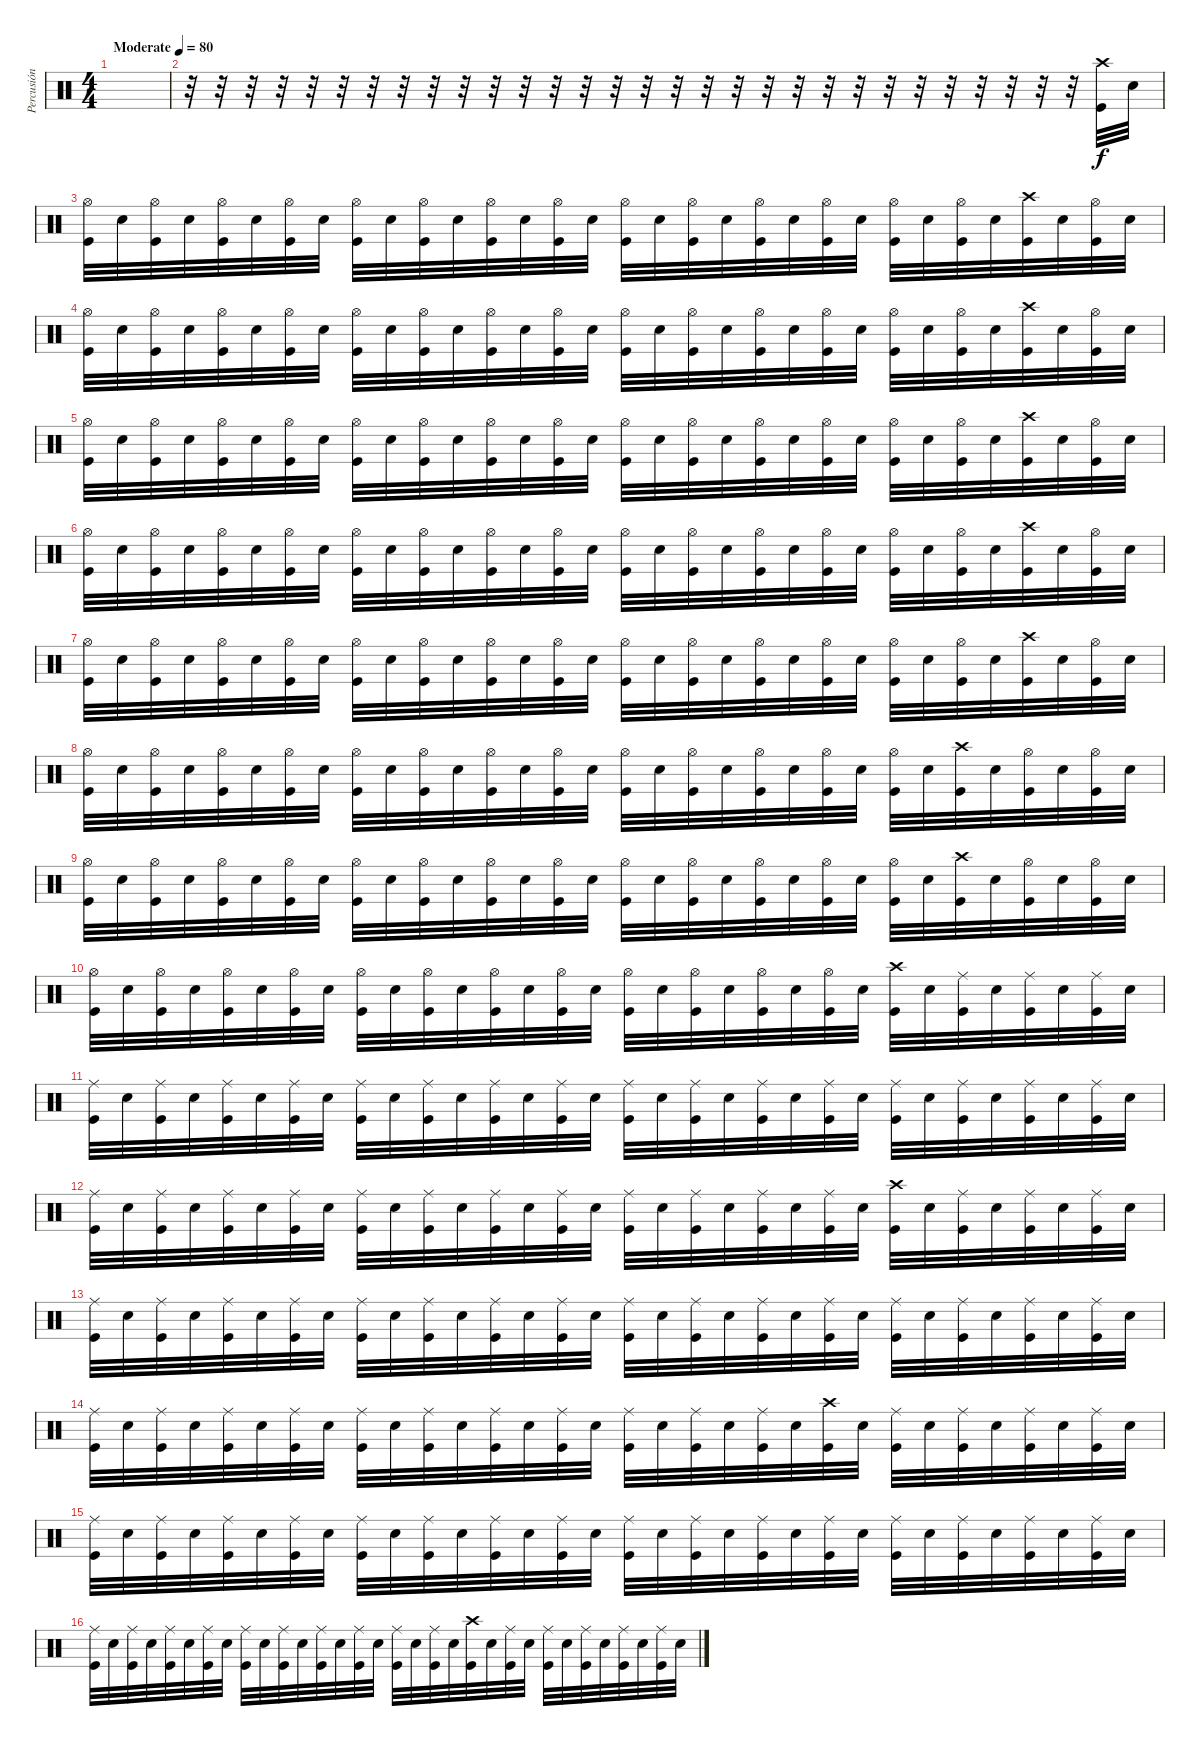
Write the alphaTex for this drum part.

\track ("Percusión" "Percusión") {instrument percussion}
\staff {score}
\articulation defaults
\ts (4 4)
\tempo (80 "Moderate")
\clef neutral
\ks c
|
r.32 r.32 r.32 r.32 r.32 r.32 r.32 r.32 r.32 r.32 r.32 r.32 r.32 r.32 r.32 r.32 r.32 r.32 r.32 r.32 r.32 r.32 r.32 r.32 r.32 r.32 r.32 r.32 r.32 r.32 ("Crash high (hit)" "Kick (hit)").32 "Electric Snare (hit)".32 |
("Hi-Hat (open)" "Kick (hit)").32 "Electric Snare (hit)".32 ("Hi-Hat (open)" "Kick (hit)").32 "Electric Snare (hit)".32 ("Hi-Hat (open)" "Kick (hit)").32 "Electric Snare (hit)".32 ("Hi-Hat (open)" "Kick (hit)").32 "Electric Snare (hit)".32 ("Hi-Hat (open)" "Kick (hit)").32 "Electric Snare (hit)".32 ("Hi-Hat (open)" "Kick (hit)").32 "Electric Snare (hit)".32 ("Hi-Hat (open)" "Kick (hit)").32 "Electric Snare (hit)".32 ("Hi-Hat (open)" "Kick (hit)").32 "Electric Snare (hit)".32 ("Hi-Hat (open)" "Kick (hit)").32 "Electric Snare (hit)".32 ("Hi-Hat (open)" "Kick (hit)").32 "Electric Snare (hit)".32 ("Hi-Hat (open)" "Kick (hit)").32 "Electric Snare (hit)".32 ("Hi-Hat (open)" "Kick (hit)").32 "Electric Snare (hit)".32 ("Hi-Hat (open)" "Kick (hit)").32 "Electric Snare (hit)".32 ("Hi-Hat (open)" "Kick (hit)").32 "Electric Snare (hit)".32 ("Crash high (hit)" "Kick (hit)").32 "Electric Snare (hit)".32 ("Hi-Hat (open)" "Kick (hit)").32 "Electric Snare (hit)".32 |
("Hi-Hat (open)" "Kick (hit)").32 "Electric Snare (hit)".32 ("Hi-Hat (open)" "Kick (hit)").32 "Electric Snare (hit)".32 ("Hi-Hat (open)" "Kick (hit)").32 "Electric Snare (hit)".32 ("Hi-Hat (open)" "Kick (hit)").32 "Electric Snare (hit)".32 ("Hi-Hat (open)" "Kick (hit)").32 "Electric Snare (hit)".32 ("Hi-Hat (open)" "Kick (hit)").32 "Electric Snare (hit)".32 ("Hi-Hat (open)" "Kick (hit)").32 "Electric Snare (hit)".32 ("Hi-Hat (open)" "Kick (hit)").32 "Electric Snare (hit)".32 ("Hi-Hat (open)" "Kick (hit)").32 "Electric Snare (hit)".32 ("Hi-Hat (open)" "Kick (hit)").32 "Electric Snare (hit)".32 ("Hi-Hat (open)" "Kick (hit)").32 "Electric Snare (hit)".32 ("Hi-Hat (open)" "Kick (hit)").32 "Electric Snare (hit)".32 ("Hi-Hat (open)" "Kick (hit)").32 "Electric Snare (hit)".32 ("Hi-Hat (open)" "Kick (hit)").32 "Electric Snare (hit)".32 ("Crash high (hit)" "Kick (hit)").32 "Electric Snare (hit)".32 ("Hi-Hat (open)" "Kick (hit)").32 "Electric Snare (hit)".32 |
("Hi-Hat (open)" "Kick (hit)").32 "Electric Snare (hit)".32 ("Hi-Hat (open)" "Kick (hit)").32 "Electric Snare (hit)".32 ("Hi-Hat (open)" "Kick (hit)").32 "Electric Snare (hit)".32 ("Hi-Hat (open)" "Kick (hit)").32 "Electric Snare (hit)".32 ("Hi-Hat (open)" "Kick (hit)").32 "Electric Snare (hit)".32 ("Hi-Hat (open)" "Kick (hit)").32 "Electric Snare (hit)".32 ("Hi-Hat (open)" "Kick (hit)").32 "Electric Snare (hit)".32 ("Hi-Hat (open)" "Kick (hit)").32 "Electric Snare (hit)".32 ("Hi-Hat (open)" "Kick (hit)").32 "Electric Snare (hit)".32 ("Hi-Hat (open)" "Kick (hit)").32 "Electric Snare (hit)".32 ("Hi-Hat (open)" "Kick (hit)").32 "Electric Snare (hit)".32 ("Hi-Hat (open)" "Kick (hit)").32 "Electric Snare (hit)".32 ("Hi-Hat (open)" "Kick (hit)").32 "Electric Snare (hit)".32 ("Hi-Hat (open)" "Kick (hit)").32 "Electric Snare (hit)".32 ("Crash high (hit)" "Kick (hit)").32 "Electric Snare (hit)".32 ("Hi-Hat (open)" "Kick (hit)").32 "Electric Snare (hit)".32 |
("Hi-Hat (open)" "Kick (hit)").32 "Electric Snare (hit)".32 ("Hi-Hat (open)" "Kick (hit)").32 "Electric Snare (hit)".32 ("Hi-Hat (open)" "Kick (hit)").32 "Electric Snare (hit)".32 ("Hi-Hat (open)" "Kick (hit)").32 "Electric Snare (hit)".32 ("Hi-Hat (open)" "Kick (hit)").32 "Electric Snare (hit)".32 ("Hi-Hat (open)" "Kick (hit)").32 "Electric Snare (hit)".32 ("Hi-Hat (open)" "Kick (hit)").32 "Electric Snare (hit)".32 ("Hi-Hat (open)" "Kick (hit)").32 "Electric Snare (hit)".32 ("Hi-Hat (open)" "Kick (hit)").32 "Electric Snare (hit)".32 ("Hi-Hat (open)" "Kick (hit)").32 "Electric Snare (hit)".32 ("Hi-Hat (open)" "Kick (hit)").32 "Electric Snare (hit)".32 ("Hi-Hat (open)" "Kick (hit)").32 "Electric Snare (hit)".32 ("Hi-Hat (open)" "Kick (hit)").32 "Electric Snare (hit)".32 ("Hi-Hat (open)" "Kick (hit)").32 "Electric Snare (hit)".32 ("Crash high (hit)" "Kick (hit)").32 "Electric Snare (hit)".32 ("Hi-Hat (open)" "Kick (hit)").32 "Electric Snare (hit)".32 |
("Hi-Hat (open)" "Kick (hit)").32 "Electric Snare (hit)".32 ("Hi-Hat (open)" "Kick (hit)").32 "Electric Snare (hit)".32 ("Hi-Hat (open)" "Kick (hit)").32 "Electric Snare (hit)".32 ("Hi-Hat (open)" "Kick (hit)").32 "Electric Snare (hit)".32 ("Hi-Hat (open)" "Kick (hit)").32 "Electric Snare (hit)".32 ("Hi-Hat (open)" "Kick (hit)").32 "Electric Snare (hit)".32 ("Hi-Hat (open)" "Kick (hit)").32 "Electric Snare (hit)".32 ("Hi-Hat (open)" "Kick (hit)").32 "Electric Snare (hit)".32 ("Hi-Hat (open)" "Kick (hit)").32 "Electric Snare (hit)".32 ("Hi-Hat (open)" "Kick (hit)").32 "Electric Snare (hit)".32 ("Hi-Hat (open)" "Kick (hit)").32 "Electric Snare (hit)".32 ("Hi-Hat (open)" "Kick (hit)").32 "Electric Snare (hit)".32 ("Hi-Hat (open)" "Kick (hit)").32 "Electric Snare (hit)".32 ("Hi-Hat (open)" "Kick (hit)").32 "Electric Snare (hit)".32 ("Crash high (hit)" "Kick (hit)").32 "Electric Snare (hit)".32 ("Hi-Hat (open)" "Kick (hit)").32 "Electric Snare (hit)".32 |
("Hi-Hat (open)" "Kick (hit)").32 "Electric Snare (hit)".32 ("Hi-Hat (open)" "Kick (hit)").32 "Electric Snare (hit)".32 ("Hi-Hat (open)" "Kick (hit)").32 "Electric Snare (hit)".32 ("Hi-Hat (open)" "Kick (hit)").32 "Electric Snare (hit)".32 ("Hi-Hat (open)" "Kick (hit)").32 "Electric Snare (hit)".32 ("Hi-Hat (open)" "Kick (hit)").32 "Electric Snare (hit)".32 ("Hi-Hat (open)" "Kick (hit)").32 "Electric Snare (hit)".32 ("Hi-Hat (open)" "Kick (hit)").32 "Electric Snare (hit)".32 ("Hi-Hat (open)" "Kick (hit)").32 "Electric Snare (hit)".32 ("Hi-Hat (open)" "Kick (hit)").32 "Electric Snare (hit)".32 ("Hi-Hat (open)" "Kick (hit)").32 "Electric Snare (hit)".32 ("Hi-Hat (open)" "Kick (hit)").32 "Electric Snare (hit)".32 ("Hi-Hat (open)" "Kick (hit)").32 "Electric Snare (hit)".32 ("Crash high (hit)" "Kick (hit)").32 "Electric Snare (hit)".32 ("Hi-Hat (open)" "Kick (hit)").32 "Electric Snare (hit)".32 ("Hi-Hat (open)" "Kick (hit)").32 "Electric Snare (hit)".32 |
("Hi-Hat (open)" "Kick (hit)").32 "Electric Snare (hit)".32 ("Hi-Hat (open)" "Kick (hit)").32 "Electric Snare (hit)".32 ("Hi-Hat (open)" "Kick (hit)").32 "Electric Snare (hit)".32 ("Hi-Hat (open)" "Kick (hit)").32 "Electric Snare (hit)".32 ("Hi-Hat (open)" "Kick (hit)").32 "Electric Snare (hit)".32 ("Hi-Hat (open)" "Kick (hit)").32 "Electric Snare (hit)".32 ("Hi-Hat (open)" "Kick (hit)").32 "Electric Snare (hit)".32 ("Hi-Hat (open)" "Kick (hit)").32 "Electric Snare (hit)".32 ("Hi-Hat (open)" "Kick (hit)").32 "Electric Snare (hit)".32 ("Hi-Hat (open)" "Kick (hit)").32 "Electric Snare (hit)".32 ("Hi-Hat (open)" "Kick (hit)").32 "Electric Snare (hit)".32 ("Hi-Hat (open)" "Kick (hit)").32 "Electric Snare (hit)".32 ("Hi-Hat (open)" "Kick (hit)").32 "Electric Snare (hit)".32 ("Crash high (hit)" "Kick (hit)").32 "Electric Snare (hit)".32 ("Hi-Hat (open)" "Kick (hit)").32 "Electric Snare (hit)".32 ("Hi-Hat (open)" "Kick (hit)").32 "Electric Snare (hit)".32 |
("Hi-Hat (open)" "Kick (hit)").32 "Electric Snare (hit)".32 ("Hi-Hat (open)" "Kick (hit)").32 "Electric Snare (hit)".32 ("Hi-Hat (open)" "Kick (hit)").32 "Electric Snare (hit)".32 ("Hi-Hat (open)" "Kick (hit)").32 "Electric Snare (hit)".32 ("Hi-Hat (open)" "Kick (hit)").32 "Electric Snare (hit)".32 ("Hi-Hat (open)" "Kick (hit)").32 "Electric Snare (hit)".32 ("Hi-Hat (open)" "Kick (hit)").32 "Electric Snare (hit)".32 ("Hi-Hat (open)" "Kick (hit)").32 "Electric Snare (hit)".32 ("Hi-Hat (open)" "Kick (hit)").32 "Electric Snare (hit)".32 ("Hi-Hat (open)" "Kick (hit)").32 "Electric Snare (hit)".32 ("Hi-Hat (open)" "Kick (hit)").32 "Electric Snare (hit)".32 ("Hi-Hat (open)" "Kick (hit)").32 "Electric Snare (hit)".32 ("Crash high (hit)" "Kick (hit)").32 "Electric Snare (hit)".32 ("Ride (middle)" "Kick (hit)").32 "Electric Snare (hit)".32 ("Ride (middle)" "Kick (hit)").32 "Electric Snare (hit)".32 ("Ride (middle)" "Kick (hit)").32 "Electric Snare (hit)".32 |
("Ride (middle)" "Kick (hit)").32 "Electric Snare (hit)".32 ("Ride (middle)" "Kick (hit)").32 "Electric Snare (hit)".32 ("Ride (middle)" "Kick (hit)").32 "Electric Snare (hit)".32 ("Ride (middle)" "Kick (hit)").32 "Electric Snare (hit)".32 ("Ride (middle)" "Kick (hit)").32 "Electric Snare (hit)".32 ("Ride (middle)" "Kick (hit)").32 "Electric Snare (hit)".32 ("Ride (middle)" "Kick (hit)").32 "Electric Snare (hit)".32 ("Ride (middle)" "Kick (hit)").32 "Electric Snare (hit)".32 ("Ride (middle)" "Kick (hit)").32 "Electric Snare (hit)".32 ("Ride (middle)" "Kick (hit)").32 "Electric Snare (hit)".32 ("Ride (middle)" "Kick (hit)").32 "Electric Snare (hit)".32 ("Ride (middle)" "Kick (hit)").32 "Electric Snare (hit)".32 ("Ride (middle)" "Kick (hit)").32 "Electric Snare (hit)".32 ("Ride (middle)" "Kick (hit)").32 "Electric Snare (hit)".32 ("Ride (middle)" "Kick (hit)").32 "Electric Snare (hit)".32 ("Ride (middle)" "Kick (hit)").32 "Electric Snare (hit)".32 |
("Ride (middle)" "Kick (hit)").32 "Electric Snare (hit)".32 ("Ride (middle)" "Kick (hit)").32 "Electric Snare (hit)".32 ("Ride (middle)" "Kick (hit)").32 "Electric Snare (hit)".32 ("Ride (middle)" "Kick (hit)").32 "Electric Snare (hit)".32 ("Ride (middle)" "Kick (hit)").32 "Electric Snare (hit)".32 ("Ride (middle)" "Kick (hit)").32 "Electric Snare (hit)".32 ("Ride (middle)" "Kick (hit)").32 "Electric Snare (hit)".32 ("Ride (middle)" "Kick (hit)").32 "Electric Snare (hit)".32 ("Ride (middle)" "Kick (hit)").32 "Electric Snare (hit)".32 ("Ride (middle)" "Kick (hit)").32 "Electric Snare (hit)".32 ("Ride (middle)" "Kick (hit)").32 "Electric Snare (hit)".32 ("Ride (middle)" "Kick (hit)").32 "Electric Snare (hit)".32 ("Crash high (hit)" "Kick (hit)").32 "Electric Snare (hit)".32 ("Ride (middle)" "Kick (hit)").32 "Electric Snare (hit)".32 ("Ride (middle)" "Kick (hit)").32 "Electric Snare (hit)".32 ("Ride (middle)" "Kick (hit)").32 "Electric Snare (hit)".32 |
("Ride (middle)" "Kick (hit)").32 "Electric Snare (hit)".32 ("Ride (middle)" "Kick (hit)").32 "Electric Snare (hit)".32 ("Ride (middle)" "Kick (hit)").32 "Electric Snare (hit)".32 ("Ride (middle)" "Kick (hit)").32 "Electric Snare (hit)".32 ("Ride (middle)" "Kick (hit)").32 "Electric Snare (hit)".32 ("Ride (middle)" "Kick (hit)").32 "Electric Snare (hit)".32 ("Ride (middle)" "Kick (hit)").32 "Electric Snare (hit)".32 ("Ride (middle)" "Kick (hit)").32 "Electric Snare (hit)".32 ("Ride (middle)" "Kick (hit)").32 "Electric Snare (hit)".32 ("Ride (middle)" "Kick (hit)").32 "Electric Snare (hit)".32 ("Ride (middle)" "Kick (hit)").32 "Electric Snare (hit)".32 ("Ride (middle)" "Kick (hit)").32 "Electric Snare (hit)".32 ("Ride (middle)" "Kick (hit)").32 "Electric Snare (hit)".32 ("Ride (middle)" "Kick (hit)").32 "Electric Snare (hit)".32 ("Ride (middle)" "Kick (hit)").32 "Electric Snare (hit)".32 ("Ride (middle)" "Kick (hit)").32 "Electric Snare (hit)".32 |
("Ride (middle)" "Kick (hit)").32 "Electric Snare (hit)".32 ("Ride (middle)" "Kick (hit)").32 "Electric Snare (hit)".32 ("Ride (middle)" "Kick (hit)").32 "Electric Snare (hit)".32 ("Ride (middle)" "Kick (hit)").32 "Electric Snare (hit)".32 ("Ride (middle)" "Kick (hit)").32 "Electric Snare (hit)".32 ("Ride (middle)" "Kick (hit)").32 "Electric Snare (hit)".32 ("Ride (middle)" "Kick (hit)").32 "Electric Snare (hit)".32 ("Ride (middle)" "Kick (hit)").32 "Electric Snare (hit)".32 ("Ride (middle)" "Kick (hit)").32 "Electric Snare (hit)".32 ("Ride (middle)" "Kick (hit)").32 "Electric Snare (hit)".32 ("Ride (middle)" "Kick (hit)").32 "Electric Snare (hit)".32 ("Crash high (hit)" "Kick (hit)").32 "Electric Snare (hit)".32 ("Ride (middle)" "Kick (hit)").32 "Electric Snare (hit)".32 ("Ride (middle)" "Kick (hit)").32 "Electric Snare (hit)".32 ("Ride (middle)" "Kick (hit)").32 "Electric Snare (hit)".32 ("Ride (middle)" "Kick (hit)").32 "Electric Snare (hit)".32 |
("Ride (middle)" "Kick (hit)").32 "Electric Snare (hit)".32 ("Ride (middle)" "Kick (hit)").32 "Electric Snare (hit)".32 ("Ride (middle)" "Kick (hit)").32 "Electric Snare (hit)".32 ("Ride (middle)" "Kick (hit)").32 "Electric Snare (hit)".32 ("Ride (middle)" "Kick (hit)").32 "Electric Snare (hit)".32 ("Ride (middle)" "Kick (hit)").32 "Electric Snare (hit)".32 ("Ride (middle)" "Kick (hit)").32 "Electric Snare (hit)".32 ("Ride (middle)" "Kick (hit)").32 "Electric Snare (hit)".32 ("Ride (middle)" "Kick (hit)").32 "Electric Snare (hit)".32 ("Ride (middle)" "Kick (hit)").32 "Electric Snare (hit)".32 ("Ride (middle)" "Kick (hit)").32 "Electric Snare (hit)".32 ("Ride (middle)" "Kick (hit)").32 "Electric Snare (hit)".32 ("Ride (middle)" "Kick (hit)").32 "Electric Snare (hit)".32 ("Ride (middle)" "Kick (hit)").32 "Electric Snare (hit)".32 ("Ride (middle)" "Kick (hit)").32 "Electric Snare (hit)".32 ("Ride (middle)" "Kick (hit)").32 "Electric Snare (hit)".32 |
("Ride (middle)" "Kick (hit)").32 "Electric Snare (hit)".32 ("Ride (middle)" "Kick (hit)").32 "Electric Snare (hit)".32 ("Ride (middle)" "Kick (hit)").32 "Electric Snare (hit)".32 ("Ride (middle)" "Kick (hit)").32 "Electric Snare (hit)".32 ("Ride (middle)" "Kick (hit)").32 "Electric Snare (hit)".32 ("Ride (middle)" "Kick (hit)").32 "Electric Snare (hit)".32 ("Ride (middle)" "Kick (hit)").32 "Electric Snare (hit)".32 ("Ride (middle)" "Kick (hit)").32 "Electric Snare (hit)".32 ("Ride (middle)" "Kick (hit)").32 "Electric Snare (hit)".32 ("Ride (middle)" "Kick (hit)").32 "Electric Snare (hit)".32 ("Crash high (hit)" "Kick (hit)").32 "Electric Snare (hit)".32 ("Ride (middle)" "Kick (hit)").32 "Electric Snare (hit)".32 ("Ride (middle)" "Kick (hit)").32 "Electric Snare (hit)".32 ("Ride (middle)" "Kick (hit)").32 "Electric Snare (hit)".32 ("Ride (middle)" "Kick (hit)").32 "Electric Snare (hit)".32 ("Ride (middle)" "Kick (hit)").32 "Electric Snare (hit)".32
